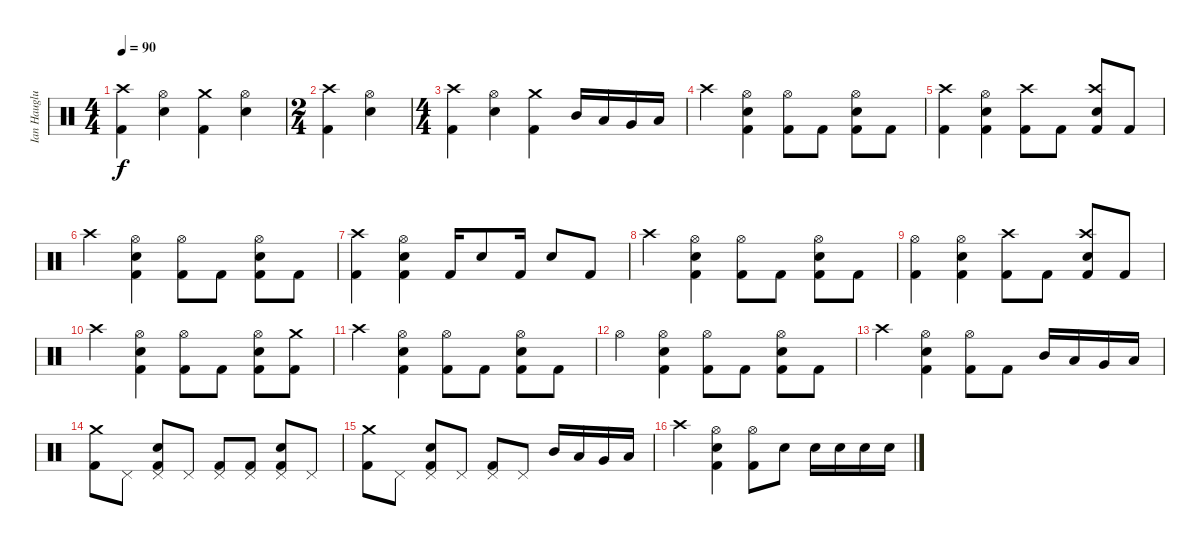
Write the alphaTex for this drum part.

\track ("Ian Hauglund" "Ian Hauglu") {instrument percussion}
\staff {score}
\articulation defaults
\ts (4 4)
\tempo 90
\clef neutral
\ks c
("Kick (hit) 2" "Crash high (hit)").4{dy f} ("Electric Snare (hit)" "Hi-Hat (open)").4 ("Kick (hit) 2" "Crash medium (hit)").4 ("Electric Snare (hit)" "Hi-Hat (open)").4 |
\ts (2 4)
("Kick (hit) 2" "Crash high (hit)").4 ("Electric Snare (hit)" "Hi-Hat (open)").4 |
\ts (4 4)
("Kick (hit) 2" "Crash high (hit)").4 ("Electric Snare (hit)" "Hi-Hat (open)").4 ("Kick (hit) 2" "Crash medium (hit)").4 "Mid Tom (hit)".16 "Low Tom (hit)".16 "Very Low Tom (hit)".16 "Low Floor Tom (hit)".16 |
"Crash high (hit)".4 ("Kick (hit) 2" "Electric Snare (hit)" "Hi-Hat (open)").4 ("Kick (hit) 2" "Hi-Hat (open)").8 "Kick (hit) 2".8 ("Kick (hit) 2" "Hi-Hat (open)" "Electric Snare (hit)").8 "Kick (hit) 2".8 |
("Kick (hit) 2" "Crash high (hit)").4 ("Kick (hit) 2" "Electric Snare (hit)" "Hi-Hat (open)").4 ("Kick (hit) 2" "Crash high (hit)").8 "Kick (hit) 2".8 ("Kick (hit) 2" "Electric Snare (hit)" "Crash high (hit)").8 "Kick (hit) 2".8 |
"Crash high (hit)".4 ("Kick (hit) 2" "Electric Snare (hit)" "Hi-Hat (open)").4 ("Kick (hit) 2" "Hi-Hat (open)").8 "Kick (hit) 2".8 ("Kick (hit) 2" "Hi-Hat (open)" "Electric Snare (hit)").8 "Kick (hit) 2".8 |
("Kick (hit) 2" "Crash high (hit)").4 ("Kick (hit) 2" "Electric Snare (hit)" "Hi-Hat (open)").4 "Kick (hit) 2".16 "Electric Snare (hit)".8 "Kick (hit) 2".16 "Electric Snare (hit)".8 "Kick (hit) 2".8 |
"Crash high (hit)".4 ("Kick (hit) 2" "Electric Snare (hit)" "Hi-Hat (open)").4 ("Kick (hit) 2" "Hi-Hat (open)").8 "Kick (hit) 2".8 ("Kick (hit) 2" "Hi-Hat (open)" "Electric Snare (hit)").8 "Kick (hit) 2".8 |
("Kick (hit) 2" "Hi-Hat (open)").4 ("Kick (hit) 2" "Electric Snare (hit)" "Hi-Hat (open)").4 ("Kick (hit) 2" "Crash high (hit)").8 "Kick (hit) 2".8 ("Kick (hit) 2" "Electric Snare (hit)" "Crash high (hit)").8 "Kick (hit) 2".8 |
"Crash high (hit)".4 ("Kick (hit) 2" "Electric Snare (hit)" "Hi-Hat (open)").4 ("Kick (hit) 2" "Hi-Hat (open)").8 "Kick (hit) 2".8 ("Kick (hit) 2" "Hi-Hat (open)" "Electric Snare (hit)").8 ("Kick (hit) 2" "Crash medium (hit)").8 |
"Crash high (hit)".4 ("Kick (hit) 2" "Electric Snare (hit)" "Hi-Hat (open)").4 ("Kick (hit) 2" "Hi-Hat (open)").8 "Kick (hit) 2".8 ("Kick (hit) 2" "Hi-Hat (open)" "Electric Snare (hit)").8 "Kick (hit) 2".8 |
"Hi-Hat (open)".4 ("Kick (hit) 2" "Electric Snare (hit)" "Hi-Hat (open)").4 ("Kick (hit) 2" "Hi-Hat (open)").8 "Kick (hit) 2".8 ("Kick (hit) 2" "Hi-Hat (open)" "Electric Snare (hit)").8 "Kick (hit) 2".8 |
"Crash high (hit)".4 ("Kick (hit) 2" "Electric Snare (hit)" "Hi-Hat (open)").4 ("Kick (hit) 2" "Hi-Hat (open)").8 "Kick (hit) 2".8 "Mid Tom (hit)".16 "Low Tom (hit)".16 "Very Low Tom (hit)".16 "Low Floor Tom (hit)".16 |
("Kick (hit) 2" "Crash medium (hit)").8 "Pedal Hi-Hat (hit)".8 ("Kick (hit) 2" "Electric Snare (hit)" "Pedal Hi-Hat (hit)").8 "Pedal Hi-Hat (hit)".8 ("Kick (hit) 2" "Pedal Hi-Hat (hit)").8 ("Kick (hit) 2" "Pedal Hi-Hat (hit)").8 ("Kick (hit) 2" "Electric Snare (hit)" "Pedal Hi-Hat (hit)").8 "Pedal Hi-Hat (hit)".8 |
("Kick (hit) 2" "Crash medium (hit)").8 "Pedal Hi-Hat (hit)".8 ("Kick (hit) 2" "Electric Snare (hit)" "Pedal Hi-Hat (hit)").8 "Pedal Hi-Hat (hit)".8 ("Kick (hit) 2" "Pedal Hi-Hat (hit)").8 "Pedal Hi-Hat (hit)".8 "Mid Tom (hit)".16 "Low Tom (hit)".16 "Very Low Tom (hit)".16 "Low Floor Tom (hit)".16 |
"Crash high (hit)".4 ("Kick (hit) 2" "Electric Snare (hit)" "Hi-Hat (open)").4 ("Kick (hit) 2" "Hi-Hat (open)").8 "Electric Snare (hit)".8 "Electric Snare (hit)".16 "Electric Snare (hit)".16 "Electric Snare (hit)".16 "Electric Snare (hit)".16
